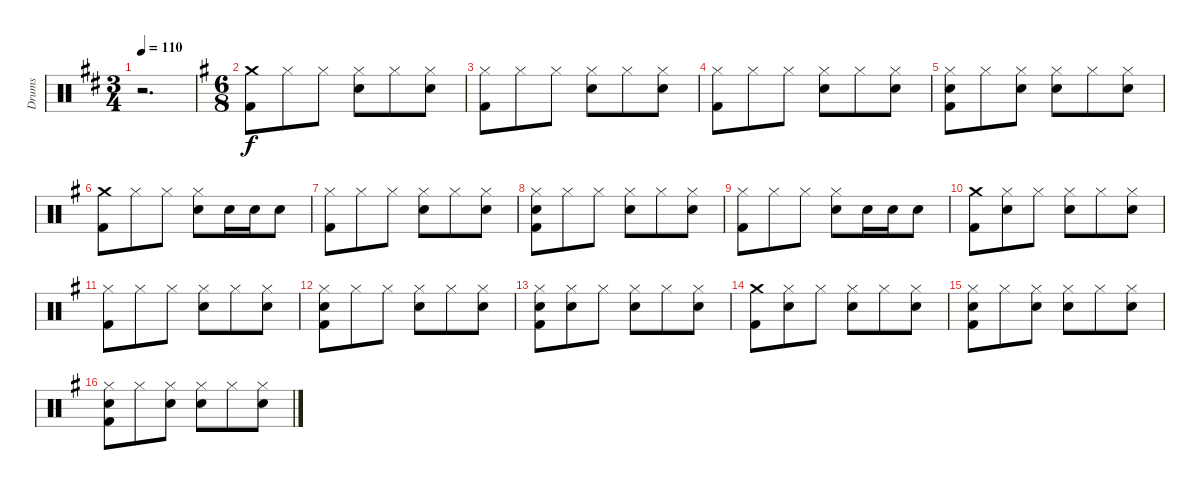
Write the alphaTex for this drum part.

\track ("Drums" "Drums") {instrument percussion}
\staff {score}
\articulation defaults
\ts (3 4)
\tempo 110
\clef neutral
\ks d
r.2{d dy f} |
\ts (6 8)
\ks g
("Crash medium (hit)" "Kick (hit) 2").8{volume 10} "Hi-Hat (closed)".8 "Hi-Hat (closed)".8 ("Hi-Hat (closed)" "Snare (hit) 2").8 "Hi-Hat (closed)".8 ("Hi-Hat (closed)" "Snare (hit) 2").8 |
("Hi-Hat (closed)" "Kick (hit) 2").8 "Hi-Hat (closed)".8 "Hi-Hat (closed)".8 ("Hi-Hat (closed)" "Snare (hit) 2").8 "Hi-Hat (closed)".8 ("Hi-Hat (closed)" "Snare (hit) 2").8 |
("Hi-Hat (closed)" "Kick (hit) 2").8 "Hi-Hat (closed)".8 "Hi-Hat (closed)".8 ("Hi-Hat (closed)" "Snare (hit) 2").8 "Hi-Hat (closed)".8 ("Hi-Hat (closed)" "Snare (hit) 2").8 |
("Hi-Hat (closed)" "Snare (hit) 2" "Kick (hit) 2").8 "Hi-Hat (closed)".8 ("Hi-Hat (closed)" "Snare (hit) 2").8 ("Hi-Hat (closed)" "Snare (hit) 2").8 "Hi-Hat (closed)".8 ("Hi-Hat (closed)" "Snare (hit) 2").8 |
("Crash medium (hit)" "Kick (hit) 2").8 "Hi-Hat (closed)".8 "Hi-Hat (closed)".8 ("Hi-Hat (closed)" "Snare (hit) 2").8 "Snare (hit) 2".16 "Snare (hit) 2".16 "Snare (hit) 2".8 |
("Hi-Hat (closed)" "Kick (hit) 2").8 "Hi-Hat (closed)".8 "Hi-Hat (closed)".8 ("Hi-Hat (closed)" "Snare (hit) 2").8 "Hi-Hat (closed)".8 ("Hi-Hat (closed)" "Snare (hit) 2").8 |
("Hi-Hat (closed)" "Snare (hit) 2" "Kick (hit) 2").8 "Hi-Hat (closed)".8 "Hi-Hat (closed)".8 ("Hi-Hat (closed)" "Snare (hit) 2").8 "Hi-Hat (closed)".8 ("Hi-Hat (closed)" "Snare (hit) 2").8 |
("Hi-Hat (closed)" "Kick (hit) 2").8 "Hi-Hat (closed)".8 "Hi-Hat (closed)".8 ("Hi-Hat (closed)" "Snare (hit) 2").8 "Snare (hit) 2".16 "Snare (hit) 2".16 "Snare (hit) 2".8 |
("Crash medium (hit)" "Kick (hit) 2").8 ("Hi-Hat (closed)" "Snare (hit) 2").8 "Hi-Hat (closed)".8 ("Hi-Hat (closed)" "Snare (hit) 2").8 "Hi-Hat (closed)".8 ("Hi-Hat (closed)" "Snare (hit) 2").8 |
("Hi-Hat (closed)" "Kick (hit) 2").8 "Hi-Hat (closed)".8 "Hi-Hat (closed)".8 ("Hi-Hat (closed)" "Snare (hit) 2").8 "Hi-Hat (closed)".8 ("Hi-Hat (closed)" "Snare (hit) 2").8 |
("Hi-Hat (closed)" "Snare (hit) 2" "Kick (hit) 2").8 "Hi-Hat (closed)".8 "Hi-Hat (closed)".8 ("Hi-Hat (closed)" "Snare (hit) 2").8 "Hi-Hat (closed)".8 ("Hi-Hat (closed)" "Snare (hit) 2").8 |
("Hi-Hat (closed)" "Snare (hit) 2" "Kick (hit) 2").8 ("Hi-Hat (closed)" "Snare (hit) 2").8 "Hi-Hat (closed)".8 ("Hi-Hat (closed)" "Snare (hit) 2").8 "Hi-Hat (closed)".8 ("Hi-Hat (closed)" "Snare (hit) 2").8 |
("Crash medium (hit)" "Kick (hit) 2").8 ("Hi-Hat (closed)" "Snare (hit) 2").8 "Hi-Hat (closed)".8 ("Hi-Hat (closed)" "Snare (hit) 2").8 "Hi-Hat (closed)".8 ("Hi-Hat (closed)" "Snare (hit) 2").8 |
("Hi-Hat (closed)" "Snare (hit) 2" "Kick (hit) 2").8 "Hi-Hat (closed)".8 ("Hi-Hat (closed)" "Snare (hit) 2").8 ("Hi-Hat (closed)" "Snare (hit) 2").8 "Hi-Hat (closed)".8 ("Hi-Hat (closed)" "Snare (hit) 2").8 |
("Hi-Hat (closed)" "Snare (hit) 2" "Kick (hit) 2").8 "Hi-Hat (closed)".8 ("Hi-Hat (closed)" "Snare (hit) 2").8 ("Hi-Hat (closed)" "Snare (hit) 2").8 "Hi-Hat (closed)".8 ("Hi-Hat (closed)" "Snare (hit) 2").8
